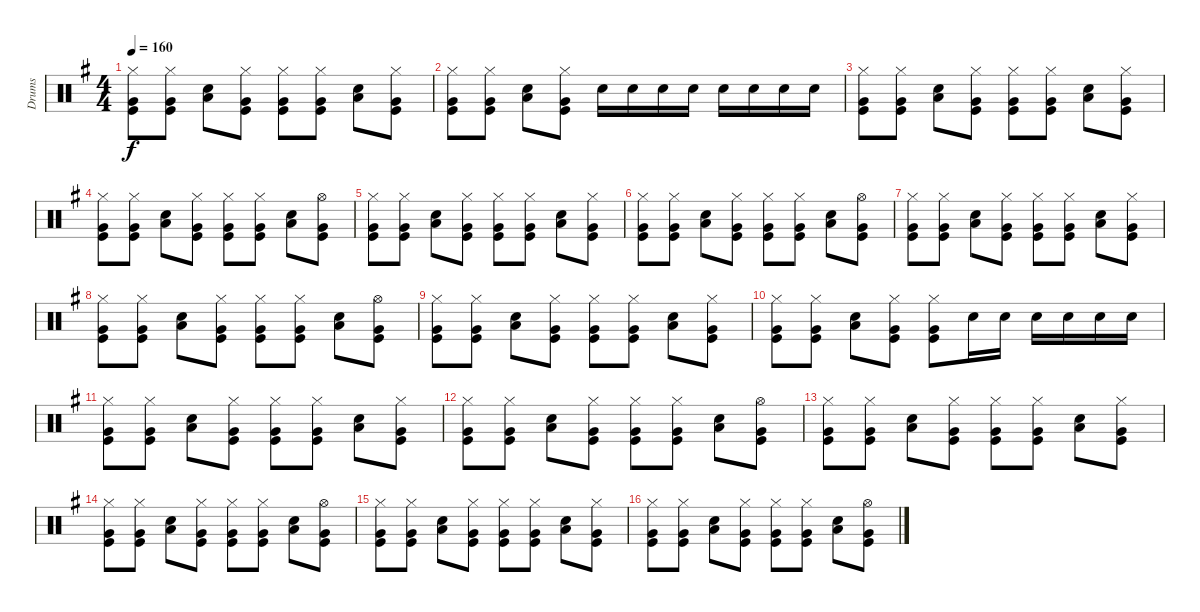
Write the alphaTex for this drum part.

\track ("Drums" "Drums") {instrument percussion}
\staff {score}
\articulation defaults
\ts (4 4)
\tempo 160
\clef neutral
\ks g
("Hi-Hat (closed)" "Very Low Tom (hit)" "Kick (hit)").8{dy f} ("Hi-Hat (closed)" "Very Low Tom (hit)" "Kick (hit)").8 ("Snare (hit) 2" "Low Tom (hit)").8 ("Hi-Hat (closed)" "Very Low Tom (hit)" "Kick (hit)").8 ("Hi-Hat (closed)" "Very Low Tom (hit)" "Kick (hit)").8 ("Hi-Hat (closed)" "Very Low Tom (hit)" "Kick (hit)").8 ("Snare (hit) 2" "Low Tom (hit)").8 ("Hi-Hat (closed)" "Very Low Tom (hit)" "Kick (hit)").8 |
("Hi-Hat (closed)" "Very Low Tom (hit)" "Kick (hit)").8 ("Hi-Hat (closed)" "Very Low Tom (hit)" "Kick (hit)").8 ("Snare (hit) 2" "Low Tom (hit)").8 ("Hi-Hat (closed)" "Very Low Tom (hit)" "Kick (hit)").8 "Snare (hit) 2".16 "Snare (hit) 2".16 "Snare (hit) 2".16 "Snare (hit) 2".16 "Snare (hit) 2".16 "Snare (hit) 2".16 "Snare (hit) 2".16 "Snare (hit) 2".16 |
("Hi-Hat (closed)" "Very Low Tom (hit)" "Kick (hit)").8 ("Hi-Hat (closed)" "Very Low Tom (hit)" "Kick (hit)").8 ("Snare (hit) 2" "Low Tom (hit)").8 ("Hi-Hat (closed)" "Very Low Tom (hit)" "Kick (hit)").8 ("Hi-Hat (closed)" "Very Low Tom (hit)" "Kick (hit)").8 ("Hi-Hat (closed)" "Very Low Tom (hit)" "Kick (hit)").8 ("Snare (hit) 2" "Low Tom (hit)").8 ("Hi-Hat (closed)" "Very Low Tom (hit)" "Kick (hit)").8 |
("Hi-Hat (closed)" "Very Low Tom (hit)" "Kick (hit)").8 ("Hi-Hat (closed)" "Very Low Tom (hit)" "Kick (hit)").8 ("Snare (hit) 2" "Low Tom (hit)").8 ("Hi-Hat (closed)" "Very Low Tom (hit)" "Kick (hit)").8 ("Hi-Hat (closed)" "Very Low Tom (hit)" "Kick (hit)").8 ("Hi-Hat (closed)" "Very Low Tom (hit)" "Kick (hit)").8 ("Snare (hit) 2" "Low Tom (hit)").8 ("Hi-Hat (open)" "Very Low Tom (hit)" "Kick (hit)").8 |
("Hi-Hat (closed)" "Very Low Tom (hit)" "Kick (hit)").8 ("Hi-Hat (closed)" "Very Low Tom (hit)" "Kick (hit)").8 ("Snare (hit) 2" "Low Tom (hit)").8 ("Hi-Hat (closed)" "Very Low Tom (hit)" "Kick (hit)").8 ("Hi-Hat (closed)" "Very Low Tom (hit)" "Kick (hit)").8 ("Hi-Hat (closed)" "Very Low Tom (hit)" "Kick (hit)").8 ("Snare (hit) 2" "Low Tom (hit)").8 ("Hi-Hat (closed)" "Very Low Tom (hit)" "Kick (hit)").8 |
("Hi-Hat (closed)" "Very Low Tom (hit)" "Kick (hit)").8 ("Hi-Hat (closed)" "Very Low Tom (hit)" "Kick (hit)").8 ("Snare (hit) 2" "Low Tom (hit)").8 ("Hi-Hat (closed)" "Very Low Tom (hit)" "Kick (hit)").8 ("Hi-Hat (closed)" "Very Low Tom (hit)" "Kick (hit)").8 ("Hi-Hat (closed)" "Very Low Tom (hit)" "Kick (hit)").8 ("Snare (hit) 2" "Low Tom (hit)").8 ("Hi-Hat (open)" "Very Low Tom (hit)" "Kick (hit)").8 |
("Hi-Hat (closed)" "Very Low Tom (hit)" "Kick (hit)").8 ("Hi-Hat (closed)" "Very Low Tom (hit)" "Kick (hit)").8 ("Snare (hit) 2" "Low Tom (hit)").8 ("Hi-Hat (closed)" "Very Low Tom (hit)" "Kick (hit)").8 ("Hi-Hat (closed)" "Very Low Tom (hit)" "Kick (hit)").8 ("Hi-Hat (closed)" "Very Low Tom (hit)" "Kick (hit)").8 ("Snare (hit) 2" "Low Tom (hit)").8 ("Hi-Hat (closed)" "Very Low Tom (hit)" "Kick (hit)").8 |
("Hi-Hat (closed)" "Very Low Tom (hit)" "Kick (hit)").8 ("Hi-Hat (closed)" "Very Low Tom (hit)" "Kick (hit)").8 ("Snare (hit) 2" "Low Tom (hit)").8 ("Hi-Hat (closed)" "Very Low Tom (hit)" "Kick (hit)").8 ("Hi-Hat (closed)" "Very Low Tom (hit)" "Kick (hit)").8 ("Hi-Hat (closed)" "Very Low Tom (hit)" "Kick (hit)").8 ("Snare (hit) 2" "Low Tom (hit)").8 ("Hi-Hat (open)" "Very Low Tom (hit)" "Kick (hit)").8 |
("Hi-Hat (closed)" "Very Low Tom (hit)" "Kick (hit)").8 ("Hi-Hat (closed)" "Very Low Tom (hit)" "Kick (hit)").8 ("Snare (hit) 2" "Low Tom (hit)").8 ("Hi-Hat (closed)" "Very Low Tom (hit)" "Kick (hit)").8 ("Hi-Hat (closed)" "Very Low Tom (hit)" "Kick (hit)").8 ("Hi-Hat (closed)" "Very Low Tom (hit)" "Kick (hit)").8 ("Snare (hit) 2" "Low Tom (hit)").8 ("Hi-Hat (closed)" "Very Low Tom (hit)" "Kick (hit)").8 |
("Hi-Hat (closed)" "Very Low Tom (hit)" "Kick (hit)").8 ("Hi-Hat (closed)" "Very Low Tom (hit)" "Kick (hit)").8 ("Snare (hit) 2" "Low Tom (hit)").8 ("Hi-Hat (closed)" "Very Low Tom (hit)" "Kick (hit)").8 ("Hi-Hat (closed)" "Very Low Tom (hit)" "Kick (hit)").8 "Snare (hit) 2".16 "Snare (hit) 2".16 "Snare (hit) 2".16 "Snare (hit) 2".16 "Snare (hit) 2".16 "Snare (hit) 2".16 |
("Hi-Hat (closed)" "Very Low Tom (hit)" "Kick (hit)").8 ("Hi-Hat (closed)" "Very Low Tom (hit)" "Kick (hit)").8 ("Snare (hit) 2" "Low Tom (hit)").8 ("Hi-Hat (closed)" "Very Low Tom (hit)" "Kick (hit)").8 ("Hi-Hat (closed)" "Very Low Tom (hit)" "Kick (hit)").8 ("Hi-Hat (closed)" "Very Low Tom (hit)" "Kick (hit)").8 ("Snare (hit) 2" "Low Tom (hit)").8 ("Hi-Hat (closed)" "Very Low Tom (hit)" "Kick (hit)").8 |
("Hi-Hat (closed)" "Very Low Tom (hit)" "Kick (hit)").8 ("Hi-Hat (closed)" "Very Low Tom (hit)" "Kick (hit)").8 ("Snare (hit) 2" "Low Tom (hit)").8 ("Hi-Hat (closed)" "Very Low Tom (hit)" "Kick (hit)").8 ("Hi-Hat (closed)" "Very Low Tom (hit)" "Kick (hit)").8 ("Hi-Hat (closed)" "Very Low Tom (hit)" "Kick (hit)").8 ("Snare (hit) 2" "Low Tom (hit)").8 ("Hi-Hat (open)" "Very Low Tom (hit)" "Kick (hit)").8 |
("Hi-Hat (closed)" "Very Low Tom (hit)" "Kick (hit)").8 ("Hi-Hat (closed)" "Very Low Tom (hit)" "Kick (hit)").8 ("Snare (hit) 2" "Low Tom (hit)").8 ("Hi-Hat (closed)" "Very Low Tom (hit)" "Kick (hit)").8 ("Hi-Hat (closed)" "Very Low Tom (hit)" "Kick (hit)").8 ("Hi-Hat (closed)" "Very Low Tom (hit)" "Kick (hit)").8 ("Snare (hit) 2" "Low Tom (hit)").8 ("Hi-Hat (closed)" "Very Low Tom (hit)" "Kick (hit)").8 |
("Hi-Hat (closed)" "Very Low Tom (hit)" "Kick (hit)").8 ("Hi-Hat (closed)" "Very Low Tom (hit)" "Kick (hit)").8 ("Snare (hit) 2" "Low Tom (hit)").8 ("Hi-Hat (closed)" "Very Low Tom (hit)" "Kick (hit)").8 ("Hi-Hat (closed)" "Very Low Tom (hit)" "Kick (hit)").8 ("Hi-Hat (closed)" "Very Low Tom (hit)" "Kick (hit)").8 ("Snare (hit) 2" "Low Tom (hit)").8 ("Hi-Hat (open)" "Very Low Tom (hit)" "Kick (hit)").8 |
("Hi-Hat (closed)" "Very Low Tom (hit)" "Kick (hit)").8 ("Hi-Hat (closed)" "Very Low Tom (hit)" "Kick (hit)").8 ("Snare (hit) 2" "Low Tom (hit)").8 ("Hi-Hat (closed)" "Very Low Tom (hit)" "Kick (hit)").8 ("Hi-Hat (closed)" "Very Low Tom (hit)" "Kick (hit)").8 ("Hi-Hat (closed)" "Very Low Tom (hit)" "Kick (hit)").8 ("Snare (hit) 2" "Low Tom (hit)").8 ("Hi-Hat (closed)" "Very Low Tom (hit)" "Kick (hit)").8 |
("Hi-Hat (closed)" "Very Low Tom (hit)" "Kick (hit)").8 ("Hi-Hat (closed)" "Very Low Tom (hit)" "Kick (hit)").8 ("Snare (hit) 2" "Low Tom (hit)").8 ("Hi-Hat (closed)" "Very Low Tom (hit)" "Kick (hit)").8 ("Hi-Hat (closed)" "Very Low Tom (hit)" "Kick (hit)").8 ("Hi-Hat (closed)" "Very Low Tom (hit)" "Kick (hit)").8 ("Snare (hit) 2" "Low Tom (hit)").8 ("Hi-Hat (open)" "Very Low Tom (hit)" "Kick (hit)").8
